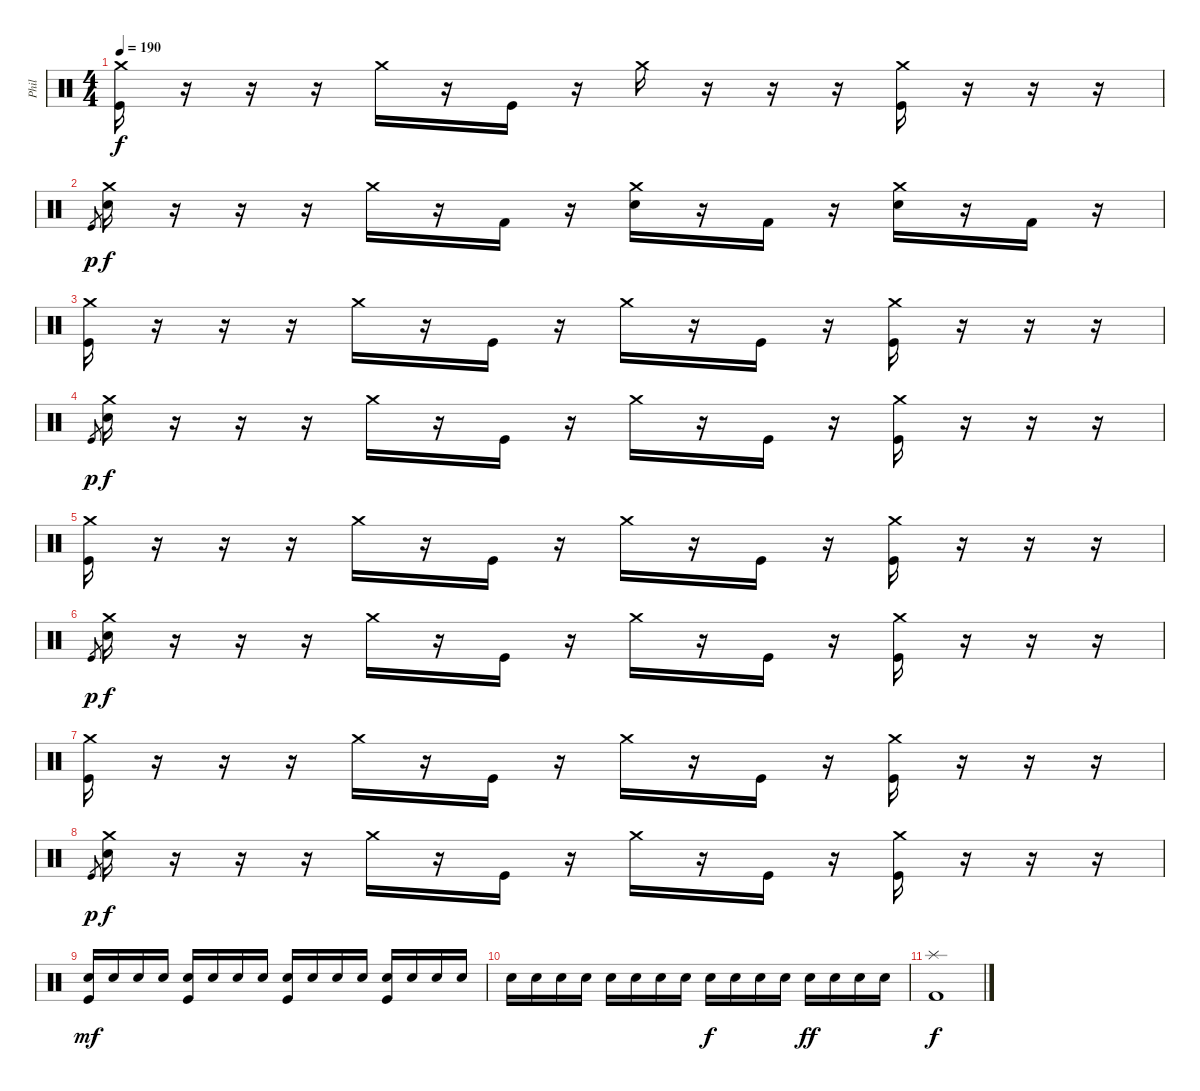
\track ("Phil" "Phil") {instrument percussion}
\staff {score}
\articulation defaults
\ts (4 4)
\tempo 190
\clef neutral
\ks c
("Crash medium (hit)" "Kick (hit)").16{dy f} r.16 r.16 r.16 "Crash medium (hit)".16 r.16 "Kick (hit)".16 r.16 "Crash medium (hit)".16 r.16 r.16 r.16 ("Crash medium (hit)" "Kick (hit)").16 r.16 r.16 r.16 |
"Kick (hit)".8{gr dy p} ("Crash medium (hit)" "Electric Snare (hit)").16{dy f} r.16 r.16 r.16 "Crash medium (hit)".16 r.16 "Kick (hit) 2".16 r.16 ("Crash medium (hit)" "Electric Snare (hit)").16 r.16 "Kick (hit) 2".16 r.16 ("Crash medium (hit)" "Electric Snare (hit)").16 r.16 "Kick (hit) 2".16 r.16 |
("Crash medium (hit)" "Kick (hit)").16 r.16 r.16 r.16 "Crash medium (hit)".16 r.16 "Kick (hit)".16 r.16 "Crash medium (hit)".16 r.16 "Kick (hit)".16 r.16 ("Crash medium (hit)" "Kick (hit)").16 r.16 r.16 r.16 |
"Kick (hit)".8{gr dy p} ("Crash medium (hit)" "Electric Snare (hit)").16{dy f} r.16 r.16 r.16 "Crash medium (hit)".16 r.16 "Kick (hit)".16 r.16 "Crash medium (hit)".16 r.16 "Kick (hit)".16 r.16 ("Crash medium (hit)" "Kick (hit)").16 r.16 r.16 r.16 |
("Crash medium (hit)" "Kick (hit)").16 r.16 r.16 r.16 "Crash medium (hit)".16 r.16 "Kick (hit)".16 r.16 "Crash medium (hit)".16 r.16 "Kick (hit)".16 r.16 ("Crash medium (hit)" "Kick (hit)").16 r.16 r.16 r.16 |
"Kick (hit)".8{gr dy p} ("Crash medium (hit)" "Electric Snare (hit)").16{dy f} r.16 r.16 r.16 "Crash medium (hit)".16 r.16 "Kick (hit)".16 r.16 "Crash medium (hit)".16 r.16 "Kick (hit)".16 r.16 ("Crash medium (hit)" "Kick (hit)").16 r.16 r.16 r.16 |
("Crash medium (hit)" "Kick (hit)").16 r.16 r.16 r.16 "Crash medium (hit)".16 r.16 "Kick (hit)".16 r.16 "Crash medium (hit)".16 r.16 "Kick (hit)".16 r.16 ("Crash medium (hit)" "Kick (hit)").16 r.16 r.16 r.16 |
"Kick (hit)".8{gr dy p} ("Crash medium (hit)" "Electric Snare (hit)").16{dy f} r.16 r.16 r.16 "Crash medium (hit)".16 r.16 "Kick (hit)".16 r.16 "Crash medium (hit)".16 r.16 "Kick (hit)".16 r.16 ("Crash medium (hit)" "Kick (hit)").16 r.16 r.16 r.16 |
("Electric Snare (hit)" "Kick (hit)").16{dy mf} "Electric Snare (hit)".16 "Electric Snare (hit)".16 "Electric Snare (hit)".16 ("Electric Snare (hit)" "Kick (hit)").16 "Electric Snare (hit)".16 "Electric Snare (hit)".16 "Electric Snare (hit)".16 ("Electric Snare (hit)" "Kick (hit)").16 "Electric Snare (hit)".16 "Electric Snare (hit)".16 "Electric Snare (hit)".16 ("Electric Snare (hit)" "Kick (hit)").16 "Electric Snare (hit)".16 "Electric Snare (hit)".16 "Electric Snare (hit)".16 |
"Electric Snare (hit)".16 "Electric Snare (hit)".16 "Electric Snare (hit)".16 "Electric Snare (hit)".16 "Electric Snare (hit)".16 "Electric Snare (hit)".16 "Electric Snare (hit)".16 "Electric Snare (hit)".16 "Electric Snare (hit)".16{dy f} "Electric Snare (hit)".16 "Electric Snare (hit)".16 "Electric Snare (hit)".16 "Electric Snare (hit)".16{dy ff} "Electric Snare (hit)".16 "Electric Snare (hit)".16 "Electric Snare (hit)".16 |
("Splash (hit)" "Kick (hit) 2").1{dy f}
